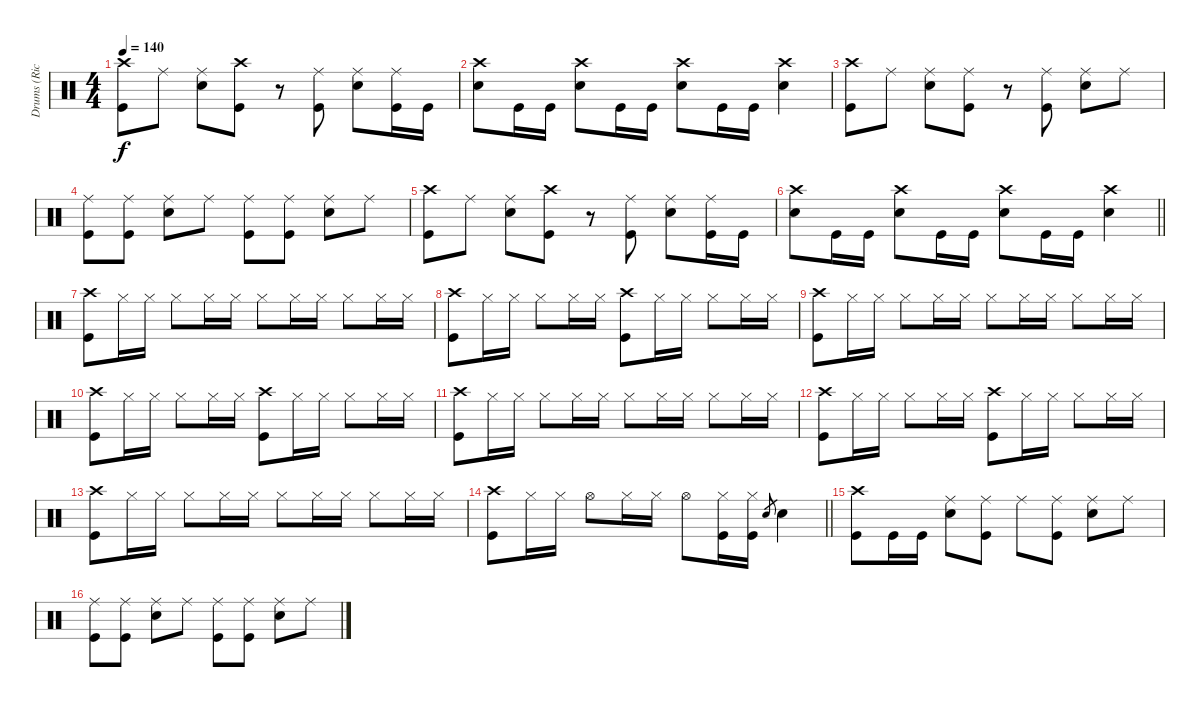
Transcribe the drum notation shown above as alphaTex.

\track ("Drums (Rick)" "Drums (Ric") {instrument percussion}
\staff {score}
\articulation defaults
\ts (4 4)
\tempo 140
\clef neutral
\ks aminor
("Crash high (hit)" "Kick (hit)").8{dy f} "Ride (middle)".8 ("Ride (middle)" "Snare (hit) 2").8 ("Crash high (hit)" "Kick (hit)").8 r.8 ("Ride (middle)" "Kick (hit)").8 ("Ride (middle)" "Snare (hit) 2").8 ("Ride (middle)" "Kick (hit)").16 "Kick (hit)".16 |
("Crash high (hit)" "Snare (hit) 2").8 "Kick (hit)".16 "Kick (hit)".16 ("Crash high (hit)" "Snare (hit) 2").8 "Kick (hit)".16 "Kick (hit)".16 ("Crash high (hit)" "Snare (hit) 2").8 "Kick (hit)".16 "Kick (hit)".16 ("Crash high (hit)" "Snare (hit) 2").4 |
("Crash high (hit)" "Kick (hit)").8 "Ride (middle)".8 ("Ride (middle)" "Snare (hit) 2").8 ("Ride (middle)" "Kick (hit)").8 r.8 ("Ride (middle)" "Kick (hit)").8 ("Ride (middle)" "Snare (hit) 2").8 "Ride (middle)".8 |
("Ride (middle)" "Kick (hit)").8 ("Ride (middle)" "Kick (hit)").8 ("Ride (middle)" "Snare (hit) 2").8 "Ride (middle)".8 ("Ride (middle)" "Kick (hit)").8 ("Ride (middle)" "Kick (hit)").8 ("Ride (middle)" "Snare (hit) 2").8 "Ride (middle)".8 |
("Crash high (hit)" "Kick (hit)").8 "Ride (middle)".8 ("Ride (middle)" "Snare (hit) 2").8 ("Crash high (hit)" "Kick (hit)").8 r.8 ("Ride (middle)" "Kick (hit)").8 ("Ride (middle)" "Snare (hit) 2").8 ("Ride (middle)" "Kick (hit)").16 "Kick (hit)".16 |
\barLineRight lightlight
("Crash high (hit)" "Snare (hit) 2").8 "Kick (hit)".16 "Kick (hit)".16 ("Crash high (hit)" "Snare (hit) 2").8 "Kick (hit)".16 "Kick (hit)".16 ("Crash high (hit)" "Snare (hit) 2").8 "Kick (hit)".16 "Kick (hit)".16 ("Crash high (hit)" "Snare (hit) 2").4 |
("Crash high (hit)" "Kick (hit)").8 "Hi-Hat (closed)".16 "Hi-Hat (closed)".16 "Hi-Hat (closed)".8 "Hi-Hat (closed)".16 "Hi-Hat (closed)".16 "Hi-Hat (closed)".8 "Hi-Hat (closed)".16 "Hi-Hat (closed)".16 "Hi-Hat (closed)".8 "Hi-Hat (closed)".16 "Hi-Hat (closed)".16 |
("Crash high (hit)" "Kick (hit)").8 "Hi-Hat (closed)".16 "Hi-Hat (closed)".16 "Hi-Hat (closed)".8 "Hi-Hat (closed)".16 "Hi-Hat (closed)".16 ("Crash high (hit)" "Kick (hit)").8 "Hi-Hat (closed)".16 "Hi-Hat (closed)".16 "Hi-Hat (closed)".8 "Hi-Hat (closed)".16 "Hi-Hat (closed)".16 |
("Crash high (hit)" "Kick (hit)").8 "Hi-Hat (closed)".16 "Hi-Hat (closed)".16 "Hi-Hat (closed)".8 "Hi-Hat (closed)".16 "Hi-Hat (closed)".16 "Hi-Hat (closed)".8 "Hi-Hat (closed)".16 "Hi-Hat (closed)".16 "Hi-Hat (closed)".8 "Hi-Hat (closed)".16 "Hi-Hat (closed)".16 |
("Crash high (hit)" "Kick (hit)").8 "Hi-Hat (closed)".16 "Hi-Hat (closed)".16 "Hi-Hat (closed)".8 "Hi-Hat (closed)".16 "Hi-Hat (closed)".16 ("Crash high (hit)" "Kick (hit)").8 "Hi-Hat (closed)".16 "Hi-Hat (closed)".16 "Hi-Hat (closed)".8 "Hi-Hat (closed)".16 "Hi-Hat (closed)".16 |
("Crash high (hit)" "Kick (hit)").8 "Hi-Hat (closed)".16 "Hi-Hat (closed)".16 "Hi-Hat (closed)".8 "Hi-Hat (closed)".16 "Hi-Hat (closed)".16 "Hi-Hat (closed)".8 "Hi-Hat (closed)".16 "Hi-Hat (closed)".16 "Hi-Hat (closed)".8 "Hi-Hat (closed)".16 "Hi-Hat (closed)".16 |
("Crash high (hit)" "Kick (hit)").8 "Hi-Hat (closed)".16 "Hi-Hat (closed)".16 "Hi-Hat (closed)".8 "Hi-Hat (closed)".16 "Hi-Hat (closed)".16 ("Crash high (hit)" "Kick (hit)").8 "Hi-Hat (closed)".16 "Hi-Hat (closed)".16 "Hi-Hat (closed)".8 "Hi-Hat (closed)".16 "Hi-Hat (closed)".16 |
("Crash high (hit)" "Kick (hit)").8 "Hi-Hat (closed)".16 "Hi-Hat (closed)".16 "Hi-Hat (closed)".8 "Hi-Hat (closed)".16 "Hi-Hat (closed)".16 "Hi-Hat (closed)".8 "Hi-Hat (closed)".16 "Hi-Hat (closed)".16 "Hi-Hat (closed)".8 "Hi-Hat (closed)".16 "Hi-Hat (closed)".16 |
\barLineRight lightlight
("Crash high (hit)" "Kick (hit)").8 "Hi-Hat (closed)".16 "Hi-Hat (closed)".16 "Hi-Hat (open)".8 "Hi-Hat (closed)".16 "Hi-Hat (closed)".16 "Hi-Hat (open)".8 ("Hi-Hat (closed)" "Kick (hit)").16 ("Hi-Hat (closed)" "Kick (hit)").16 "Snare (hit) 2".8{gr} "Snare (hit) 2".4 |
("Crash high (hit)" "Kick (hit)").8 "Kick (hit)".16 "Kick (hit)".16 ("Ride (middle)" "Snare (hit) 2").8 ("Ride (middle)" "Kick (hit)").8 "Ride (middle)".8 ("Ride (middle)" "Kick (hit)").8 ("Ride (middle)" "Snare (hit) 2").8 "Ride (middle)".8 |
("Ride (middle)" "Kick (hit)").8 ("Ride (middle)" "Kick (hit)").8 ("Ride (middle)" "Snare (hit) 2").8 "Ride (middle)".8 ("Ride (middle)" "Kick (hit)").8 ("Ride (middle)" "Kick (hit)").8 ("Ride (middle)" "Snare (hit) 2").8 "Ride (middle)".8
